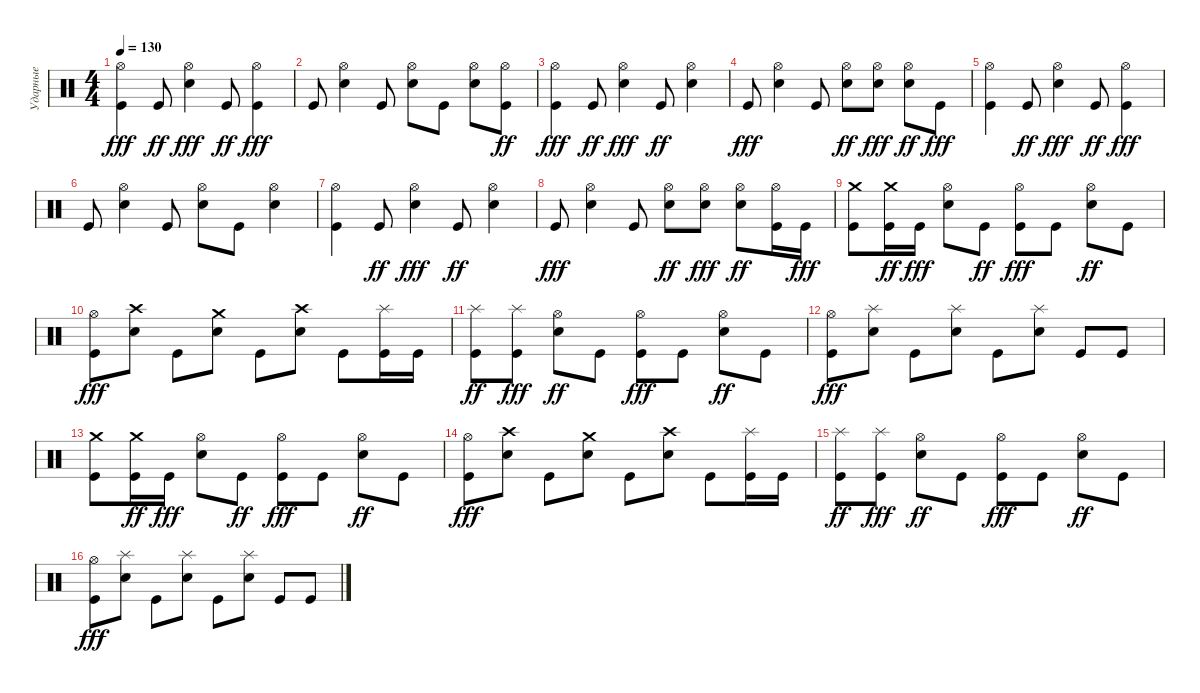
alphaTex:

\track ("Ударные" "Ударные") {instrument percussion}
\staff {score}
\articulation defaults
\ts (4 4)
\tempo 130
\clef neutral
\ks c
("Hi-Hat (open)" "Kick (hit)").4{dy fff} "Kick (hit)".8{dy ff} ("Hi-Hat (open)" "Electric Snare (hit)").4{dy fff} "Kick (hit)".8{dy ff} ("Hi-Hat (open)" "Kick (hit)").4{dy fff} |
"Kick (hit)".8 ("Hi-Hat (open)" "Electric Snare (hit)").4 "Kick (hit)".8 ("Hi-Hat (open)" "Electric Snare (hit)").8 "Kick (hit)".8 ("Hi-Hat (open)" "Electric Snare (hit)").8 ("Hi-Hat (open)" "Kick (hit)").8{dy ff} |
("Hi-Hat (open)" "Kick (hit)").4{dy fff} "Kick (hit)".8{dy ff} ("Hi-Hat (open)" "Electric Snare (hit)").4{dy fff} "Kick (hit)".8{dy ff} ("Hi-Hat (open)" "Electric Snare (hit)").4 |
"Kick (hit)".8{dy fff} ("Hi-Hat (open)" "Electric Snare (hit)").4 "Kick (hit)".8 ("Hi-Hat (open)" "Electric Snare (hit)").8{dy ff} ("Hi-Hat (open)" "Electric Snare (hit)").8{dy fff} ("Hi-Hat (open)" "Electric Snare (hit)").8{dy ff} "Kick (hit)".8{dy fff} |
("Hi-Hat (open)" "Kick (hit)").4 "Kick (hit)".8{dy ff} ("Hi-Hat (open)" "Electric Snare (hit)").4{dy fff} "Kick (hit)".8{dy ff} ("Hi-Hat (open)" "Kick (hit)").4{dy fff} |
"Kick (hit)".8 ("Hi-Hat (open)" "Electric Snare (hit)").4 "Kick (hit)".8 ("Hi-Hat (open)" "Electric Snare (hit)").8 "Kick (hit)".8 ("Hi-Hat (open)" "Electric Snare (hit)").4 |
("Hi-Hat (open)" "Kick (hit)").4 "Kick (hit)".8{dy ff} ("Hi-Hat (open)" "Electric Snare (hit)").4{dy fff} "Kick (hit)".8{dy ff} ("Hi-Hat (open)" "Electric Snare (hit)").4 |
"Kick (hit)".8{dy fff} ("Hi-Hat (open)" "Electric Snare (hit)").4 "Kick (hit)".8 ("Hi-Hat (open)" "Electric Snare (hit)").8{dy ff} ("Hi-Hat (open)" "Electric Snare (hit)").8{dy fff} ("Hi-Hat (open)" "Electric Snare (hit)").8{dy ff} ("Hi-Hat (open)" "Kick (hit)").16 "Kick (hit)".16{dy fff} |
("Crash medium (hit)" "Kick (hit)").8 ("Crash medium (hit)" "Kick (hit)").16{dy ff} "Kick (hit)".16{dy fff} ("Hi-Hat (open)" "Electric Snare (hit)").8 "Kick (hit)".8{dy ff} ("Hi-Hat (open)" "Kick (hit)").8{dy fff} "Kick (hit)".8 ("Hi-Hat (open)" "Electric Snare (hit)").8{dy ff} "Kick (hit)".8 |
("Hi-Hat (open)" "Kick (hit)").8{dy fff} ("Crash high (hit)" "Electric Snare (hit)").8 "Kick (hit)".8 ("Crash medium (hit)" "Electric Snare (hit)").8 "Kick (hit)".8 ("Crash high (hit)" "Electric Snare (hit)").8 "Kick (hit)".8 ("Splash (hit)" "Kick (hit)").16 "Kick (hit)".16 |
("Splash (hit)" "Kick (hit)").8{dy ff} ("Splash (hit)" "Kick (hit)").8{dy fff} ("Hi-Hat (open)" "Electric Snare (hit)").8{dy ff} "Kick (hit)".8 ("Hi-Hat (open)" "Kick (hit)").8{dy fff} "Kick (hit)".8 ("Hi-Hat (open)" "Electric Snare (hit)").8{dy ff} "Kick (hit)".8 |
("Hi-Hat (open)" "Kick (hit)").8{dy fff} ("Splash (hit)" "Electric Snare (hit)").8 "Kick (hit)".8 ("Splash (hit)" "Electric Snare (hit)").8 "Kick (hit)".8 ("Splash (hit)" "Electric Snare (hit)").8 "Kick (hit)".8 "Kick (hit)".8 |
("Crash medium (hit)" "Kick (hit)").8 ("Crash medium (hit)" "Kick (hit)").16{dy ff} "Kick (hit)".16{dy fff} ("Hi-Hat (open)" "Electric Snare (hit)").8 "Kick (hit)".8{dy ff} ("Hi-Hat (open)" "Kick (hit)").8{dy fff} "Kick (hit)".8 ("Hi-Hat (open)" "Electric Snare (hit)").8{dy ff} "Kick (hit)".8 |
("Hi-Hat (open)" "Kick (hit)").8{dy fff} ("Crash high (hit)" "Electric Snare (hit)").8 "Kick (hit)".8 ("Crash medium (hit)" "Electric Snare (hit)").8 "Kick (hit)".8 ("Crash high (hit)" "Electric Snare (hit)").8 "Kick (hit)".8 ("Splash (hit)" "Kick (hit)").16 "Kick (hit)".16 |
("Splash (hit)" "Kick (hit)").8{dy ff} ("Splash (hit)" "Kick (hit)").8{dy fff} ("Hi-Hat (open)" "Electric Snare (hit)").8{dy ff} "Kick (hit)".8 ("Hi-Hat (open)" "Kick (hit)").8{dy fff} "Kick (hit)".8 ("Hi-Hat (open)" "Electric Snare (hit)").8{dy ff} "Kick (hit)".8 |
("Hi-Hat (open)" "Kick (hit)").8{dy fff} ("Splash (hit)" "Electric Snare (hit)").8 "Kick (hit)".8 ("Splash (hit)" "Electric Snare (hit)").8 "Kick (hit)".8 ("Splash (hit)" "Electric Snare (hit)").8 "Kick (hit)".8 "Kick (hit)".8
